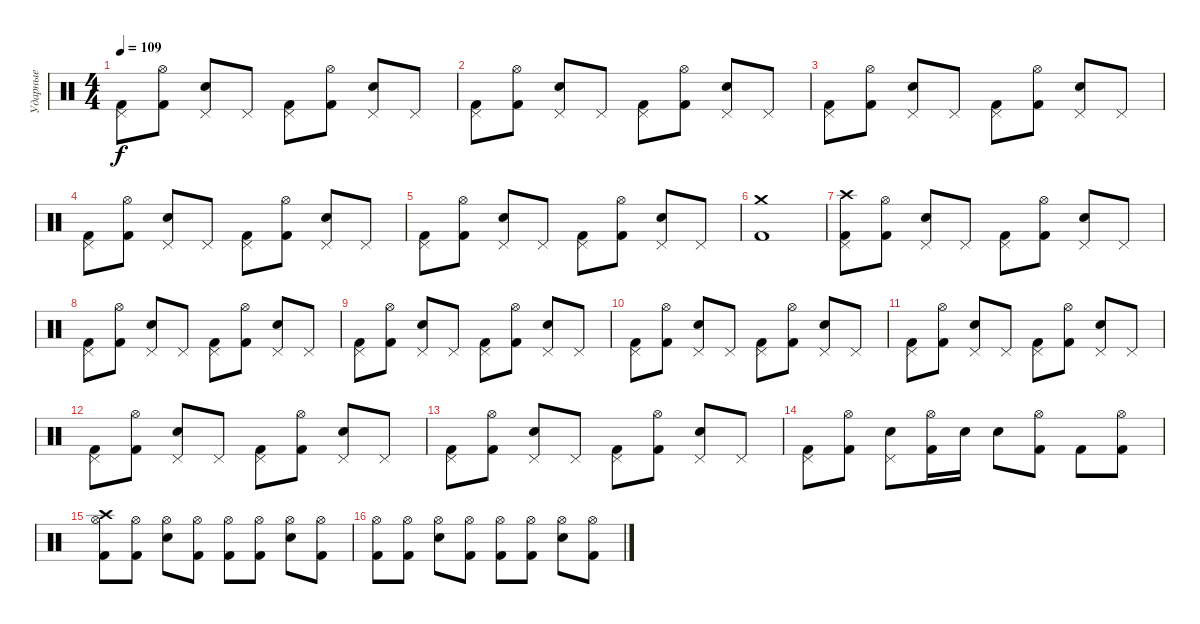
\track ("Ударные" "Ударные") {instrument percussion}
\staff {score}
\articulation defaults
\ts (4 4)
\tempo 109
\clef neutral
\ks c
("Kick (hit) 2" "Pedal Hi-Hat (hit)").8{dy f} ("Kick (hit) 2" "Hi-Hat (open)").8 ("Pedal Hi-Hat (hit)" "Snare (hit) 2").8 "Pedal Hi-Hat (hit)".8 ("Kick (hit) 2" "Pedal Hi-Hat (hit)").8 ("Kick (hit) 2" "Hi-Hat (open)").8 ("Pedal Hi-Hat (hit)" "Snare (hit) 2").8 "Pedal Hi-Hat (hit)".8 |
("Kick (hit) 2" "Pedal Hi-Hat (hit)").8 ("Kick (hit) 2" "Hi-Hat (open)").8 ("Pedal Hi-Hat (hit)" "Snare (hit) 2").8 "Pedal Hi-Hat (hit)".8 ("Kick (hit) 2" "Pedal Hi-Hat (hit)").8 ("Kick (hit) 2" "Hi-Hat (open)").8 ("Pedal Hi-Hat (hit)" "Snare (hit) 2").8 "Pedal Hi-Hat (hit)".8 |
("Kick (hit) 2" "Pedal Hi-Hat (hit)").8 ("Kick (hit) 2" "Hi-Hat (open)").8 ("Pedal Hi-Hat (hit)" "Snare (hit) 2").8 "Pedal Hi-Hat (hit)".8 ("Kick (hit) 2" "Pedal Hi-Hat (hit)").8 ("Kick (hit) 2" "Hi-Hat (open)").8 ("Pedal Hi-Hat (hit)" "Snare (hit) 2").8 "Pedal Hi-Hat (hit)".8 |
("Kick (hit) 2" "Pedal Hi-Hat (hit)").8 ("Kick (hit) 2" "Hi-Hat (open)").8 ("Pedal Hi-Hat (hit)" "Snare (hit) 2").8 "Pedal Hi-Hat (hit)".8 ("Kick (hit) 2" "Pedal Hi-Hat (hit)").8 ("Kick (hit) 2" "Hi-Hat (open)").8 ("Pedal Hi-Hat (hit)" "Snare (hit) 2").8 "Pedal Hi-Hat (hit)".8 |
("Kick (hit) 2" "Pedal Hi-Hat (hit)").8 ("Kick (hit) 2" "Hi-Hat (open)").8 ("Pedal Hi-Hat (hit)" "Snare (hit) 2").8 "Pedal Hi-Hat (hit)".8 ("Kick (hit) 2" "Pedal Hi-Hat (hit)").8 ("Kick (hit) 2" "Hi-Hat (open)").8 ("Pedal Hi-Hat (hit)" "Snare (hit) 2").8 "Pedal Hi-Hat (hit)".8 |
("Kick (hit) 2" "Crash medium (hit)").1 |
("Kick (hit) 2" "Pedal Hi-Hat (hit)" "Crash high (hit)").8 ("Kick (hit) 2" "Hi-Hat (open)").8 ("Pedal Hi-Hat (hit)" "Snare (hit) 2").8 "Pedal Hi-Hat (hit)".8 ("Kick (hit) 2" "Pedal Hi-Hat (hit)").8 ("Kick (hit) 2" "Hi-Hat (open)").8 ("Pedal Hi-Hat (hit)" "Snare (hit) 2").8 "Pedal Hi-Hat (hit)".8 |
("Kick (hit) 2" "Pedal Hi-Hat (hit)").8 ("Kick (hit) 2" "Hi-Hat (open)").8 ("Pedal Hi-Hat (hit)" "Snare (hit) 2").8 "Pedal Hi-Hat (hit)".8 ("Kick (hit) 2" "Pedal Hi-Hat (hit)").8 ("Kick (hit) 2" "Hi-Hat (open)").8 ("Pedal Hi-Hat (hit)" "Snare (hit) 2").8 "Pedal Hi-Hat (hit)".8 |
("Kick (hit) 2" "Pedal Hi-Hat (hit)").8 ("Kick (hit) 2" "Hi-Hat (open)").8 ("Pedal Hi-Hat (hit)" "Snare (hit) 2").8 "Pedal Hi-Hat (hit)".8 ("Kick (hit) 2" "Pedal Hi-Hat (hit)").8 ("Kick (hit) 2" "Hi-Hat (open)").8 ("Pedal Hi-Hat (hit)" "Snare (hit) 2").8 "Pedal Hi-Hat (hit)".8 |
("Kick (hit) 2" "Pedal Hi-Hat (hit)").8 ("Kick (hit) 2" "Hi-Hat (open)").8 ("Pedal Hi-Hat (hit)" "Snare (hit) 2").8 "Pedal Hi-Hat (hit)".8 ("Kick (hit) 2" "Pedal Hi-Hat (hit)").8 ("Kick (hit) 2" "Hi-Hat (open)").8 ("Pedal Hi-Hat (hit)" "Snare (hit) 2").8 "Pedal Hi-Hat (hit)".8 |
("Kick (hit) 2" "Pedal Hi-Hat (hit)").8 ("Kick (hit) 2" "Hi-Hat (open)").8 ("Pedal Hi-Hat (hit)" "Snare (hit) 2").8 "Pedal Hi-Hat (hit)".8 ("Kick (hit) 2" "Pedal Hi-Hat (hit)").8 ("Kick (hit) 2" "Hi-Hat (open)").8 ("Pedal Hi-Hat (hit)" "Snare (hit) 2").8 "Pedal Hi-Hat (hit)".8 |
("Kick (hit) 2" "Pedal Hi-Hat (hit)").8 ("Kick (hit) 2" "Hi-Hat (open)").8 ("Pedal Hi-Hat (hit)" "Snare (hit) 2").8 "Pedal Hi-Hat (hit)".8 ("Kick (hit) 2" "Pedal Hi-Hat (hit)").8 ("Kick (hit) 2" "Hi-Hat (open)").8 ("Pedal Hi-Hat (hit)" "Snare (hit) 2").8 "Pedal Hi-Hat (hit)".8 |
("Kick (hit) 2" "Pedal Hi-Hat (hit)").8 ("Kick (hit) 2" "Hi-Hat (open)").8 ("Pedal Hi-Hat (hit)" "Snare (hit) 2").8 "Pedal Hi-Hat (hit)".8 ("Kick (hit) 2" "Pedal Hi-Hat (hit)").8 ("Kick (hit) 2" "Hi-Hat (open)").8 ("Pedal Hi-Hat (hit)" "Snare (hit) 2").8 "Pedal Hi-Hat (hit)".8 |
("Kick (hit) 2" "Pedal Hi-Hat (hit)").8 ("Kick (hit) 2" "Hi-Hat (open)").8 ("Pedal Hi-Hat (hit)" "Snare (hit) 2").8 ("Kick (hit) 2" "Hi-Hat (open)").16 "Snare (hit) 2".16 "Snare (hit) 2".8 ("Kick (hit) 2" "Hi-Hat (open)").8 "Kick (hit) 2".8 ("Kick (hit) 2" "Hi-Hat (open)").8 |
("Kick (hit) 2" "Crash high (hit)" "Hi-Hat (open)").8 ("Kick (hit) 2" "Hi-Hat (open)").8 ("Snare (hit) 2" "Hi-Hat (open)").8 ("Kick (hit) 2" "Hi-Hat (open)").8 ("Kick (hit) 2" "Hi-Hat (open)").8 ("Kick (hit) 2" "Hi-Hat (open)").8 ("Snare (hit) 2" "Hi-Hat (open)").8 ("Kick (hit) 2" "Hi-Hat (open)").8 |
("Kick (hit) 2" "Hi-Hat (open)").8 ("Kick (hit) 2" "Hi-Hat (open)").8 ("Snare (hit) 2" "Hi-Hat (open)").8 ("Kick (hit) 2" "Hi-Hat (open)").8 ("Kick (hit) 2" "Hi-Hat (open)").8 ("Kick (hit) 2" "Hi-Hat (open)").8 ("Snare (hit) 2" "Hi-Hat (open)").8 ("Kick (hit) 2" "Hi-Hat (open)").8
